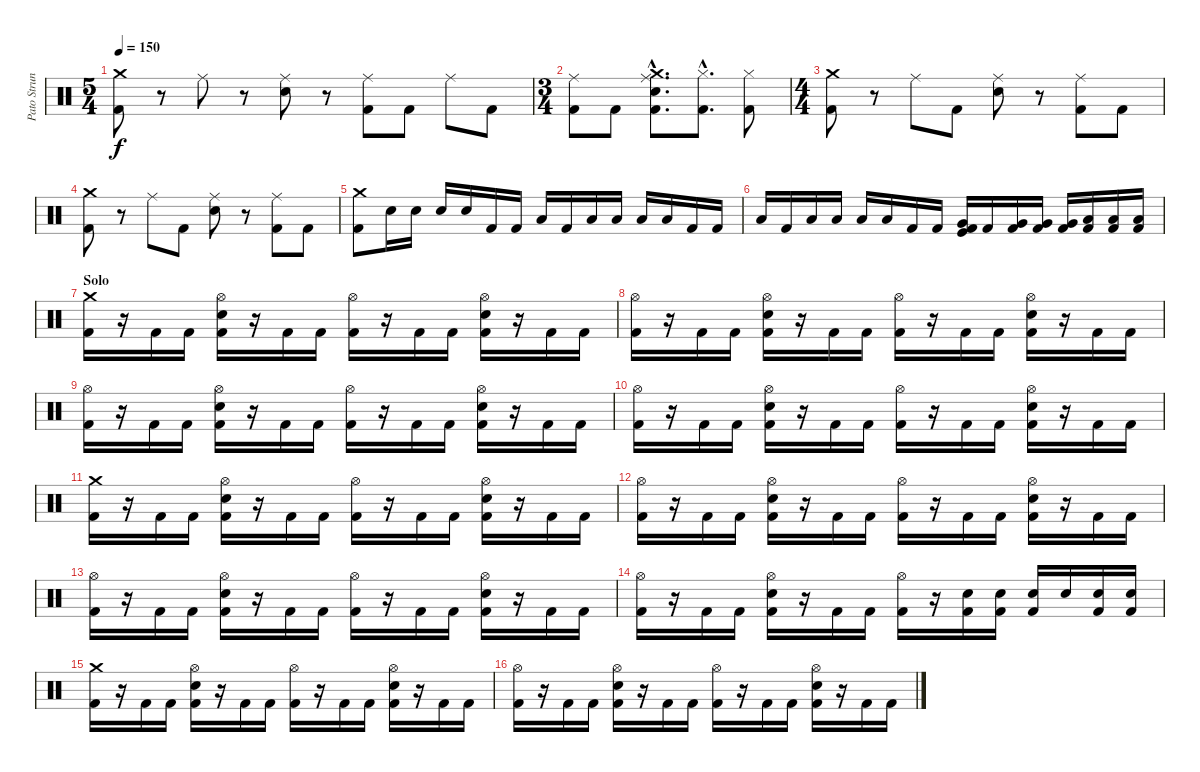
\track ("Pato Strunz" "Pato Strun") {instrument percussion}
\staff {score}
\articulation defaults
\ts (5 4)
\tempo 150
\clef neutral
\ks c
("Crash medium (hit)" "Kick (hit) 2").8{dy f} r.8 "Ride (middle)".8 r.8 ("Ride (middle)" "Electric Snare (hit)").8 r.8 ("Ride (middle)" "Kick (hit) 2").8 "Kick (hit) 2".8 "Ride (middle)".8 "Kick (hit) 2".8 |
\ts (3 4)
("Ride (middle)" "Kick (hit) 2").8 "Kick (hit) 2".8 ("Crash medium (hit)"{hac} "Ride (middle)"{hac} "Electric Snare (hit)"{hac} "Kick (hit) 2"{hac}).8{d} ("Hi-Hat (closed)"{hac} "Kick (hit) 2"{hac}).8{d} ("Hi-Hat (closed)" "Kick (hit) 2").8 |
\ts (4 4)
("Crash medium (hit)" "Kick (hit) 2").8 r.8 "Ride (middle)".8 "Kick (hit) 2".8 ("Ride (middle)" "Electric Snare (hit)").8 r.8 ("Ride (middle)" "Kick (hit) 2").8 "Kick (hit) 2".8 |
("Crash medium (hit)" "Kick (hit) 2").8 r.8 "Ride (middle)".8 "Kick (hit) 2".8 ("Ride (middle)" "Electric Snare (hit)").8 r.8 ("Ride (middle)" "Kick (hit) 2").8 "Kick (hit) 2".8 |
("Crash medium (hit)" "Kick (hit) 2").8 "Electric Snare (hit)".16 "Electric Snare (hit)".16 "Electric Snare (hit)".16 "Electric Snare (hit)".16 "Kick (hit) 2".16 "Kick (hit) 2".16 "Low Tom (hit)".16 "Kick (hit) 2".16 "Low Tom (hit)".16 "Low Tom (hit)".16 "Low Tom (hit)".16 "Low Tom (hit)".16 "Kick (hit) 2".16 "Kick (hit) 2".16 |
"Low Floor Tom (hit)".16 "Kick (hit) 2".16 "Low Floor Tom (hit)".16 "Low Floor Tom (hit)".16 "Low Floor Tom (hit)".16 "Low Floor Tom (hit)".16 "Kick (hit) 2".16 "Kick (hit) 2".16 ("Very Low Tom (hit)" "Kick (hit)" "Kick (hit) 2").16 "Kick (hit) 2".16 ("Very Low Tom (hit)" "Kick (hit) 2").16 ("Very Low Tom (hit)" "Kick (hit) 2").16 ("Very Low Tom (hit)" "Kick (hit) 2").16 ("Low Floor Tom (hit)" "Kick (hit) 2").16 ("Low Floor Tom (hit)" "Kick (hit) 2").16 ("Low Floor Tom (hit)" "Kick (hit) 2").16 |
\section ("" "Solo")
("Crash medium (hit)" "Kick (hit) 2").16 r.16 "Kick (hit) 2".16 "Kick (hit) 2".16 ("Hi-Hat (open)" "Electric Snare (hit)" "Kick (hit) 2").16 r.16 "Kick (hit) 2".16 "Kick (hit) 2".16 ("Hi-Hat (open)" "Kick (hit) 2").16 r.16 "Kick (hit) 2".16 "Kick (hit) 2".16 ("Hi-Hat (open)" "Electric Snare (hit)" "Kick (hit) 2").16 r.16 "Kick (hit) 2".16 "Kick (hit) 2".16 |
("Hi-Hat (open)" "Kick (hit) 2").16 r.16 "Kick (hit) 2".16 "Kick (hit) 2".16 ("Hi-Hat (open)" "Electric Snare (hit)" "Kick (hit) 2").16 r.16 "Kick (hit) 2".16 "Kick (hit) 2".16 ("Hi-Hat (open)" "Kick (hit) 2").16 r.16 "Kick (hit) 2".16 "Kick (hit) 2".16 ("Hi-Hat (open)" "Electric Snare (hit)" "Kick (hit) 2").16 r.16 "Kick (hit) 2".16 "Kick (hit) 2".16 |
("Hi-Hat (open)" "Kick (hit) 2").16 r.16 "Kick (hit) 2".16 "Kick (hit) 2".16 ("Hi-Hat (open)" "Electric Snare (hit)" "Kick (hit) 2").16 r.16 "Kick (hit) 2".16 "Kick (hit) 2".16 ("Hi-Hat (open)" "Kick (hit) 2").16 r.16 "Kick (hit) 2".16 "Kick (hit) 2".16 ("Hi-Hat (open)" "Electric Snare (hit)" "Kick (hit) 2").16 r.16 "Kick (hit) 2".16 "Kick (hit) 2".16 |
("Hi-Hat (open)" "Kick (hit) 2").16 r.16 "Kick (hit) 2".16 "Kick (hit) 2".16 ("Hi-Hat (open)" "Electric Snare (hit)" "Kick (hit) 2").16 r.16 "Kick (hit) 2".16 "Kick (hit) 2".16 ("Hi-Hat (open)" "Kick (hit) 2").16 r.16 "Kick (hit) 2".16 "Kick (hit) 2".16 ("Hi-Hat (open)" "Electric Snare (hit)" "Kick (hit) 2").16 r.16 "Kick (hit) 2".16 "Kick (hit) 2".16 |
("Crash medium (hit)" "Kick (hit) 2").16 r.16 "Kick (hit) 2".16 "Kick (hit) 2".16 ("Hi-Hat (open)" "Electric Snare (hit)" "Kick (hit) 2").16 r.16 "Kick (hit) 2".16 "Kick (hit) 2".16 ("Hi-Hat (open)" "Kick (hit) 2").16 r.16 "Kick (hit) 2".16 "Kick (hit) 2".16 ("Hi-Hat (open)" "Electric Snare (hit)" "Kick (hit) 2").16 r.16 "Kick (hit) 2".16 "Kick (hit) 2".16 |
("Hi-Hat (open)" "Kick (hit) 2").16 r.16 "Kick (hit) 2".16 "Kick (hit) 2".16 ("Hi-Hat (open)" "Electric Snare (hit)" "Kick (hit) 2").16 r.16 "Kick (hit) 2".16 "Kick (hit) 2".16 ("Hi-Hat (open)" "Kick (hit) 2").16 r.16 "Kick (hit) 2".16 "Kick (hit) 2".16 ("Hi-Hat (open)" "Electric Snare (hit)" "Kick (hit) 2").16 r.16 "Kick (hit) 2".16 "Kick (hit) 2".16 |
("Hi-Hat (open)" "Kick (hit) 2").16 r.16 "Kick (hit) 2".16 "Kick (hit) 2".16 ("Hi-Hat (open)" "Electric Snare (hit)" "Kick (hit) 2").16 r.16 "Kick (hit) 2".16 "Kick (hit) 2".16 ("Hi-Hat (open)" "Kick (hit) 2").16 r.16 "Kick (hit) 2".16 "Kick (hit) 2".16 ("Hi-Hat (open)" "Electric Snare (hit)" "Kick (hit) 2").16 r.16 "Kick (hit) 2".16 "Kick (hit) 2".16 |
("Hi-Hat (open)" "Kick (hit) 2").16 r.16 "Kick (hit) 2".16 "Kick (hit) 2".16 ("Hi-Hat (open)" "Electric Snare (hit)" "Kick (hit) 2").16 r.16 "Kick (hit) 2".16 "Kick (hit) 2".16 ("Hi-Hat (open)" "Kick (hit) 2").16 r.16 ("Electric Snare (hit)" "Kick (hit) 2").16 ("Electric Snare (hit)" "Kick (hit) 2").16 ("Electric Snare (hit)" "Kick (hit) 2").16 "Electric Snare (hit)".16 ("Electric Snare (hit)" "Kick (hit) 2").16 ("Electric Snare (hit)" "Kick (hit) 2").16 |
("Crash medium (hit)" "Kick (hit) 2").16 r.16 "Kick (hit) 2".16 "Kick (hit) 2".16 ("Hi-Hat (open)" "Electric Snare (hit)" "Kick (hit) 2").16 r.16 "Kick (hit) 2".16 "Kick (hit) 2".16 ("Hi-Hat (open)" "Kick (hit) 2").16 r.16 "Kick (hit) 2".16 "Kick (hit) 2".16 ("Hi-Hat (open)" "Electric Snare (hit)" "Kick (hit) 2").16 r.16 "Kick (hit) 2".16 "Kick (hit) 2".16 |
("Hi-Hat (open)" "Kick (hit) 2").16 r.16 "Kick (hit) 2".16 "Kick (hit) 2".16 ("Hi-Hat (open)" "Electric Snare (hit)" "Kick (hit) 2").16 r.16 "Kick (hit) 2".16 "Kick (hit) 2".16 ("Hi-Hat (open)" "Kick (hit) 2").16 r.16 "Kick (hit) 2".16 "Kick (hit) 2".16 ("Hi-Hat (open)" "Electric Snare (hit)" "Kick (hit) 2").16 r.16 "Kick (hit) 2".16 "Kick (hit) 2".16
